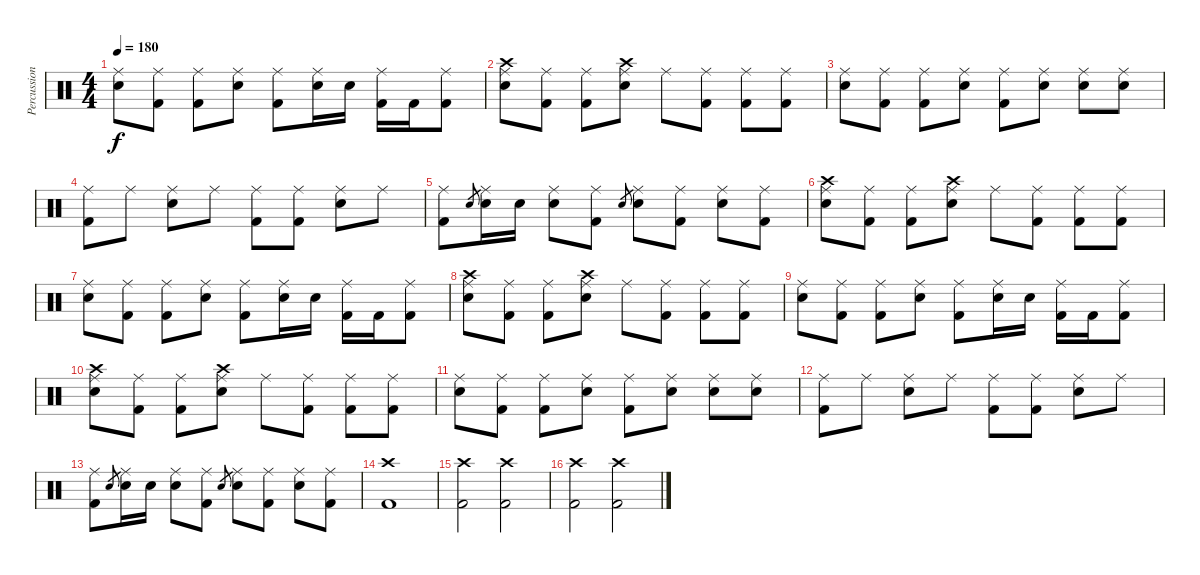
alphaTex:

\track ("Percussion" "Percussion") {instrument percussion}
\staff {score}
\articulation defaults
\ts (4 4)
\tempo 180
\clef neutral
\ks c
("Ride (middle)" "Electric Snare (hit)").8{dy f} ("Ride (middle)" "Kick (hit) 2").8 ("Ride (middle)" "Kick (hit) 2").8 ("Ride (middle)" "Electric Snare (hit)").8 ("Ride (middle)" "Kick (hit) 2").8 ("Ride (middle)" "Electric Snare (hit)").16 "Electric Snare (hit)".16 ("Ride (middle)" "Kick (hit) 2").16 "Kick (hit) 2".16 ("Ride (middle)" "Kick (hit) 2").8 |
("Ride (middle)" "Crash high (hit)" "Electric Snare (hit)").8 ("Ride (middle)" "Kick (hit) 2").8 ("Ride (middle)" "Kick (hit) 2").8 ("Ride (middle)" "Crash high (hit)" "Electric Snare (hit)").8 "Ride (middle)".8 ("Ride (middle)" "Kick (hit) 2").8 ("Ride (middle)" "Kick (hit) 2").8 ("Ride (middle)" "Kick (hit) 2").8 |
("Ride (middle)" "Electric Snare (hit)").8 ("Ride (middle)" "Kick (hit) 2").8 ("Ride (middle)" "Kick (hit) 2").8 ("Ride (middle)" "Electric Snare (hit)").8 ("Ride (middle)" "Kick (hit) 2").8 ("Ride (middle)" "Electric Snare (hit)").8 ("Ride (middle)" "Electric Snare (hit)").8 ("Ride (middle)" "Electric Snare (hit)").8 |
("Ride (middle)" "Kick (hit) 2").8 "Ride (middle)".8 ("Ride (middle)" "Electric Snare (hit)").8 "Ride (middle)".8 ("Ride (middle)" "Kick (hit) 2").8 ("Ride (middle)" "Kick (hit) 2").8 ("Ride (middle)" "Electric Snare (hit)").8 "Ride (middle)".8 |
("Ride (middle)" "Kick (hit) 2").8 "Electric Snare (hit)".8{gr} ("Ride (middle)" "Electric Snare (hit)").16 "Electric Snare (hit)".16 ("Ride (middle)" "Electric Snare (hit)").8 ("Ride (middle)" "Kick (hit) 2").8 "Electric Snare (hit)".8{gr} ("Ride (middle)" "Electric Snare (hit)").8 ("Ride (middle)" "Kick (hit) 2").8 ("Ride (middle)" "Electric Snare (hit)").8 ("Ride (middle)" "Kick (hit) 2").8 |
("Ride (middle)" "Crash high (hit)" "Electric Snare (hit)").8 ("Ride (middle)" "Kick (hit) 2").8 ("Ride (middle)" "Kick (hit) 2").8 ("Ride (middle)" "Crash high (hit)" "Electric Snare (hit)").8 "Ride (middle)".8 ("Ride (middle)" "Kick (hit) 2").8 ("Ride (middle)" "Kick (hit) 2").8 ("Ride (middle)" "Kick (hit) 2").8 |
("Ride (middle)" "Electric Snare (hit)").8 ("Ride (middle)" "Kick (hit) 2").8 ("Ride (middle)" "Kick (hit) 2").8 ("Ride (middle)" "Electric Snare (hit)").8 ("Ride (middle)" "Kick (hit) 2").8 ("Ride (middle)" "Electric Snare (hit)").16 "Electric Snare (hit)".16 ("Ride (middle)" "Kick (hit) 2").16 "Kick (hit) 2".16 ("Ride (middle)" "Kick (hit) 2").8 |
("Ride (middle)" "Crash high (hit)" "Electric Snare (hit)").8 ("Ride (middle)" "Kick (hit) 2").8 ("Ride (middle)" "Kick (hit) 2").8 ("Ride (middle)" "Crash high (hit)" "Electric Snare (hit)").8 "Ride (middle)".8 ("Ride (middle)" "Kick (hit) 2").8 ("Ride (middle)" "Kick (hit) 2").8 ("Ride (middle)" "Kick (hit) 2").8 |
("Ride (middle)" "Electric Snare (hit)").8 ("Ride (middle)" "Kick (hit) 2").8 ("Ride (middle)" "Kick (hit) 2").8 ("Ride (middle)" "Electric Snare (hit)").8 ("Ride (middle)" "Kick (hit) 2").8 ("Ride (middle)" "Electric Snare (hit)").16 "Electric Snare (hit)".16 ("Ride (middle)" "Kick (hit) 2").16 "Kick (hit) 2".16 ("Ride (middle)" "Kick (hit) 2").8 |
("Ride (middle)" "Crash high (hit)" "Electric Snare (hit)").8 ("Ride (middle)" "Kick (hit) 2").8 ("Ride (middle)" "Kick (hit) 2").8 ("Ride (middle)" "Crash high (hit)" "Electric Snare (hit)").8 "Ride (middle)".8 ("Ride (middle)" "Kick (hit) 2").8 ("Ride (middle)" "Kick (hit) 2").8 ("Ride (middle)" "Kick (hit) 2").8 |
("Ride (middle)" "Electric Snare (hit)").8 ("Ride (middle)" "Kick (hit) 2").8 ("Ride (middle)" "Kick (hit) 2").8 ("Ride (middle)" "Electric Snare (hit)").8 ("Ride (middle)" "Kick (hit) 2").8 ("Ride (middle)" "Electric Snare (hit)").8 ("Ride (middle)" "Electric Snare (hit)").8 ("Ride (middle)" "Electric Snare (hit)").8 |
("Ride (middle)" "Kick (hit) 2").8 "Ride (middle)".8 ("Ride (middle)" "Electric Snare (hit)").8 "Ride (middle)".8 ("Ride (middle)" "Kick (hit) 2").8 ("Ride (middle)" "Kick (hit) 2").8 ("Ride (middle)" "Electric Snare (hit)").8 "Ride (middle)".8 |
("Ride (middle)" "Kick (hit) 2").8 "Electric Snare (hit)".8{gr} ("Ride (middle)" "Electric Snare (hit)").16 "Electric Snare (hit)".16 ("Ride (middle)" "Electric Snare (hit)").8 ("Ride (middle)" "Kick (hit) 2").8 "Electric Snare (hit)".8{gr} ("Ride (middle)" "Electric Snare (hit)").8 ("Ride (middle)" "Kick (hit) 2").8 ("Ride (middle)" "Electric Snare (hit)").8 ("Ride (middle)" "Kick (hit) 2").8 |
("Crash high (hit)" "Kick (hit) 2").1 |
("Crash high (hit)" "Kick (hit) 2").2 ("Crash high (hit)" "Kick (hit) 2").2 |
("Crash high (hit)" "Kick (hit) 2").2 ("Crash high (hit)" "Kick (hit) 2").2
